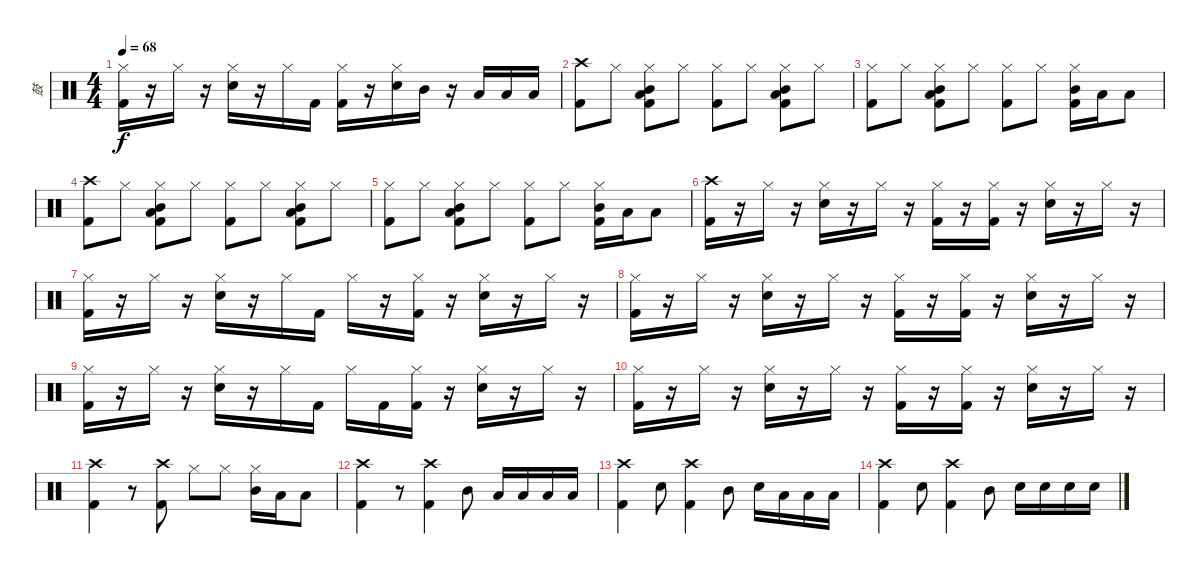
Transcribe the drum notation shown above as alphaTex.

\track ("鼓" "鼓") {instrument percussion}
\staff {score}
\articulation defaults
\ts (4 4)
\tempo 68
\clef neutral
\ks c
("Hi-Hat (closed)" "Kick (hit) 2").16{dy f} r.16 "Hi-Hat (closed)".16 r.16 ("Hi-Hat (closed)" "Electric Snare (hit)").16 r.16 "Hi-Hat (closed)".16 "Kick (hit) 2".16 ("Hi-Hat (closed)" "Kick (hit) 2").16 r.16 ("Hi-Hat (closed)" "Electric Snare (hit)").16 "Mid Tom (hit)".16 r.16 "Low Tom (hit)".16 "Low Tom (hit)".16 "Low Floor Tom (hit)".16 |
("Crash high (hit)" "Kick (hit) 2").8 "Hi-Hat (closed)".8 ("Hi-Hat (closed)" "Mid Tom (hit)" "Kick (hit) 2" "Low Tom (hit)").8 "Hi-Hat (closed)".8 ("Hi-Hat (closed)" "Kick (hit) 2").8 "Hi-Hat (closed)".8 ("Hi-Hat (closed)" "Mid Tom (hit)" "Kick (hit) 2" "Low Tom (hit)").8 "Hi-Hat (closed)".8 |
("Hi-Hat (closed)" "Kick (hit) 2").8 "Hi-Hat (closed)".8 ("Hi-Hat (closed)" "Mid Tom (hit)" "Kick (hit) 2" "Low Tom (hit)").8 "Hi-Hat (closed)".8 ("Hi-Hat (closed)" "Kick (hit) 2").8 "Hi-Hat (closed)".8 ("Hi-Hat (closed)" "Mid Tom (hit)" "Kick (hit) 2").16 "Low Tom (hit)".16 "Low Tom (hit)".8 |
("Crash high (hit)" "Kick (hit) 2").8 "Hi-Hat (closed)".8 ("Hi-Hat (closed)" "Mid Tom (hit)" "Kick (hit) 2" "Low Tom (hit)").8 "Hi-Hat (closed)".8 ("Hi-Hat (closed)" "Kick (hit) 2").8 "Hi-Hat (closed)".8 ("Hi-Hat (closed)" "Mid Tom (hit)" "Kick (hit) 2" "Low Tom (hit)").8 "Hi-Hat (closed)".8 |
("Hi-Hat (closed)" "Kick (hit) 2").8 "Hi-Hat (closed)".8 ("Hi-Hat (closed)" "Mid Tom (hit)" "Kick (hit) 2" "Low Tom (hit)").8 "Hi-Hat (closed)".8 ("Hi-Hat (closed)" "Kick (hit) 2").8 "Hi-Hat (closed)".8 ("Hi-Hat (closed)" "Mid Tom (hit)" "Kick (hit) 2").16 "Low Tom (hit)".16 "Low Tom (hit)".8 |
("Crash high (hit)" "Kick (hit) 2").16 r.16 "Hi-Hat (closed)".16 r.16 ("Hi-Hat (closed)" "Electric Snare (hit)").16 r.16 "Hi-Hat (closed)".16 r.16 ("Hi-Hat (closed)" "Kick (hit) 2").16 r.16 ("Hi-Hat (closed)" "Kick (hit) 2").16 r.16 ("Hi-Hat (closed)" "Electric Snare (hit)").16 r.16 "Hi-Hat (closed)".16 r.16 |
("Hi-Hat (closed)" "Kick (hit) 2").16 r.16 "Hi-Hat (closed)".16 r.16 ("Hi-Hat (closed)" "Electric Snare (hit)").16 r.16 "Hi-Hat (closed)".16 "Kick (hit) 2".16 "Hi-Hat (closed)".16 r.16 ("Hi-Hat (closed)" "Kick (hit) 2").16 r.16 ("Hi-Hat (closed)" "Electric Snare (hit)").16 r.16 "Hi-Hat (closed)".16 r.16 |
("Hi-Hat (closed)" "Kick (hit) 2").16 r.16 "Hi-Hat (closed)".16 r.16 ("Hi-Hat (closed)" "Electric Snare (hit)").16 r.16 "Hi-Hat (closed)".16 r.16 ("Hi-Hat (closed)" "Kick (hit) 2").16 r.16 ("Hi-Hat (closed)" "Kick (hit) 2").16 r.16 ("Hi-Hat (closed)" "Electric Snare (hit)").16 r.16 "Hi-Hat (closed)".16 r.16 |
("Hi-Hat (closed)" "Kick (hit) 2").16 r.16 "Hi-Hat (closed)".16 r.16 ("Hi-Hat (closed)" "Electric Snare (hit)").16 r.16 "Hi-Hat (closed)".16 "Kick (hit) 2".16 "Hi-Hat (closed)".16 "Kick (hit) 2".16 ("Hi-Hat (closed)" "Kick (hit) 2").16 r.16 ("Hi-Hat (closed)" "Electric Snare (hit)").16 r.16 "Hi-Hat (closed)".16 r.16 |
("Hi-Hat (closed)" "Kick (hit) 2").16 r.16 "Hi-Hat (closed)".16 r.16 ("Hi-Hat (closed)" "Electric Snare (hit)").16 r.16 "Hi-Hat (closed)".16 r.16 ("Hi-Hat (closed)" "Kick (hit) 2").16 r.16 ("Hi-Hat (closed)" "Kick (hit) 2").16 r.16 ("Hi-Hat (closed)" "Electric Snare (hit)").16 r.16 "Hi-Hat (closed)".16 r.16 |
("Crash high (hit)" "Kick (hit) 2").4 r.8 ("Crash high (hit)" "Kick (hit) 2").8 "Hi-Hat (closed)".8 "Hi-Hat (closed)".8 ("Hi-Hat (closed)" "Mid Tom (hit)").16 "Low Tom (hit)".16 "Low Floor Tom (hit)".8 |
("Crash high (hit)" "Kick (hit) 2").4 r.8 ("Crash high (hit)" "Kick (hit) 2").4 "Mid Tom (hit)".8 "Low Tom (hit)".16 "Low Tom (hit)".16 "Low Floor Tom (hit)".16 "Low Floor Tom (hit)".16 |
("Crash high (hit)" "Kick (hit) 2").4 "Electric Snare (hit)".8 ("Crash high (hit)" "Kick (hit) 2").4 "Mid Tom (hit)".8 "Electric Snare (hit)".16 "Low Tom (hit)".16 "Low Tom (hit)".16 "Low Tom (hit)".16 |
("Crash high (hit)" "Kick (hit) 2").4 "Electric Snare (hit)".8 ("Crash high (hit)" "Kick (hit) 2").4 "Mid Tom (hit)".8 "Electric Snare (hit)".16 "Electric Snare (hit)".16 "Electric Snare (hit)".16 "Electric Snare (hit)".16
